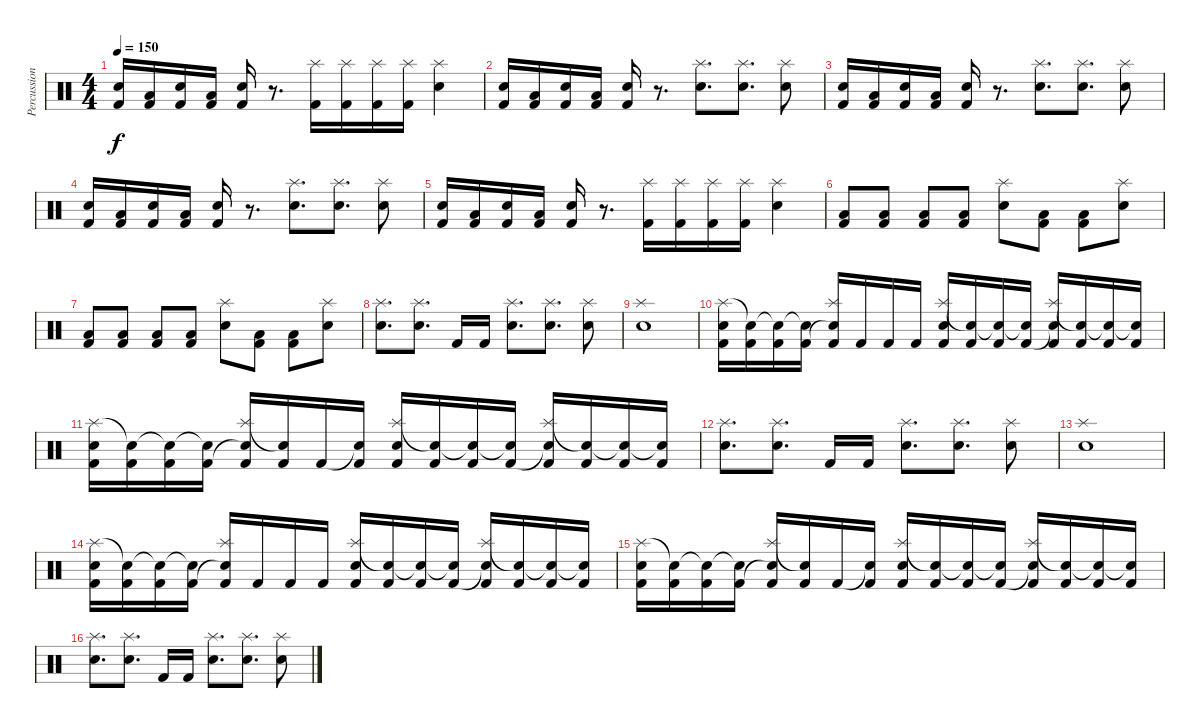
\track ("Percussions" "Percussion") {instrument percussion}
\staff {score}
\articulation defaults
\ts (4 4)
\tempo 150
\clef neutral
\ks c
("Electric Snare (hit)" "Kick (hit) 2").16{dy f} ("Low Floor Tom (hit)" "Kick (hit) 2").16 ("Electric Snare (hit)" "Kick (hit) 2").16 ("Low Floor Tom (hit)" "Kick (hit) 2").16 ("Electric Snare (hit)" "Kick (hit) 2").16 r.8{d} ("Splash (hit)" "Kick (hit) 2").16 ("Splash (hit)" "Kick (hit) 2").16 ("Splash (hit)" "Kick (hit) 2").16 ("Splash (hit)" "Kick (hit) 2").16 ("Splash (hit)" "Electric Snare (hit)").4 |
("Electric Snare (hit)" "Kick (hit) 2").16 ("Low Floor Tom (hit)" "Kick (hit) 2").16 ("Electric Snare (hit)" "Kick (hit) 2").16 ("Low Floor Tom (hit)" "Kick (hit) 2").16 ("Electric Snare (hit)" "Kick (hit) 2").16 r.8{d} ("Splash (hit)" "Electric Snare (hit)").8{d} ("Splash (hit)" "Electric Snare (hit)").8{d} ("Splash (hit)" "Electric Snare (hit)").8 |
("Electric Snare (hit)" "Kick (hit) 2").16 ("Low Floor Tom (hit)" "Kick (hit) 2").16 ("Electric Snare (hit)" "Kick (hit) 2").16 ("Low Floor Tom (hit)" "Kick (hit) 2").16 ("Electric Snare (hit)" "Kick (hit) 2").16 r.8{d} ("Splash (hit)" "Electric Snare (hit)").8{d} ("Splash (hit)" "Electric Snare (hit)").8{d} ("Splash (hit)" "Electric Snare (hit)").8 |
("Electric Snare (hit)" "Kick (hit) 2").16 ("Low Floor Tom (hit)" "Kick (hit) 2").16 ("Electric Snare (hit)" "Kick (hit) 2").16 ("Low Floor Tom (hit)" "Kick (hit) 2").16 ("Electric Snare (hit)" "Kick (hit) 2").16 r.8{d} ("Splash (hit)" "Electric Snare (hit)").8{d} ("Splash (hit)" "Electric Snare (hit)").8{d} ("Splash (hit)" "Electric Snare (hit)").8 |
("Electric Snare (hit)" "Kick (hit) 2").16 ("Low Floor Tom (hit)" "Kick (hit) 2").16 ("Electric Snare (hit)" "Kick (hit) 2").16 ("Low Floor Tom (hit)" "Kick (hit) 2").16 ("Electric Snare (hit)" "Kick (hit) 2").16 r.8{d} ("Splash (hit)" "Kick (hit) 2").16 ("Splash (hit)" "Kick (hit) 2").16 ("Splash (hit)" "Kick (hit) 2").16 ("Splash (hit)" "Kick (hit) 2").16 ("Splash (hit)" "Electric Snare (hit)").4 |
("Low Floor Tom (hit)" "Kick (hit) 2").8 ("Low Floor Tom (hit)" "Kick (hit) 2").8 ("Low Floor Tom (hit)" "Kick (hit) 2").8 ("Low Floor Tom (hit)" "Kick (hit) 2").8 ("Splash (hit)" "Electric Snare (hit)").8 ("Low Floor Tom (hit)" "Kick (hit) 2").8 ("Low Floor Tom (hit)" "Kick (hit) 2").8 ("Splash (hit)" "Electric Snare (hit)").8 |
("Low Floor Tom (hit)" "Kick (hit) 2").8 ("Low Floor Tom (hit)" "Kick (hit) 2").8 ("Low Floor Tom (hit)" "Kick (hit) 2").8 ("Low Floor Tom (hit)" "Kick (hit) 2").8 ("Splash (hit)" "Electric Snare (hit)").8 ("Low Floor Tom (hit)" "Kick (hit) 2").8 ("Low Floor Tom (hit)" "Kick (hit) 2").8 ("Splash (hit)" "Electric Snare (hit)").8 |
("Splash (hit)" "Electric Snare (hit)").8{d} ("Splash (hit)" "Electric Snare (hit)").8{d} "Kick (hit) 2".16 "Kick (hit) 2".16 ("Splash (hit)" "Electric Snare (hit)").8{d} ("Splash (hit)" "Electric Snare (hit)").8{d} ("Splash (hit)" "Electric Snare (hit)").8 |
("Splash (hit)" "Electric Snare (hit)").1 |
("Splash (hit)" "Electric Snare (hit)" "Kick (hit) 2").16 ("Snare (hit)"{t} "Kick (hit) 2").16 ("Snare (hit)"{t} "Kick (hit) 2").16 ("Snare (hit)"{t} "Kick (hit) 2").16 ("Splash (hit)" "Snare (hit) 2"{t} "Kick (hit) 2").16 "Kick (hit) 2".16 "Kick (hit) 2".16 "Kick (hit) 2".16 ("Splash (hit)" "Snare (hit) 2" "Kick (hit) 2").16 ("Snare (hit)"{t} "Kick (hit) 2").16 ("Snare (hit)"{t} "Kick (hit) 2").16 ("Snare (hit)"{t} "Kick (hit) 2").16 ("Splash (hit)" "Snare (hit) 2"{t} "Kick (hit) 2").16 ("Snare (hit)"{t} "Kick (hit) 2").16 ("Snare (hit)"{t} "Kick (hit) 2").16 ("Snare (hit)"{t} "Kick (hit) 2").16 |
("Splash (hit)" "Electric Snare (hit)" "Kick (hit) 2").16 ("Snare (hit)"{t} "Kick (hit) 2").16 ("Snare (hit)"{t} "Kick (hit) 2").16 ("Snare (hit)"{t} "Kick (hit) 2").16 ("Splash (hit)" "Snare (hit) 2"{t} "Kick (hit) 2").16 ("Snare (hit)"{t} "Kick (hit) 2").16 "Kick (hit) 2".16 ("Snare (hit)"{t} "Kick (hit) 2").16 ("Splash (hit)" "Snare (hit) 2" "Kick (hit) 2").16 ("Snare (hit)"{t} "Kick (hit) 2").16 ("Snare (hit)"{t} "Kick (hit) 2").16 ("Snare (hit)"{t} "Kick (hit) 2").16 ("Splash (hit)" "Snare (hit) 2"{t} "Kick (hit) 2").16 ("Snare (hit)"{t} "Kick (hit) 2").16 ("Snare (hit)"{t} "Kick (hit) 2").16 ("Snare (hit)"{t} "Kick (hit) 2").16 |
("Splash (hit)" "Electric Snare (hit)").8{d} ("Splash (hit)" "Electric Snare (hit)").8{d} "Kick (hit) 2".16 "Kick (hit) 2".16 ("Splash (hit)" "Electric Snare (hit)").8{d} ("Splash (hit)" "Electric Snare (hit)").8{d} ("Splash (hit)" "Electric Snare (hit)").8 |
("Splash (hit)" "Electric Snare (hit)").1 |
("Splash (hit)" "Electric Snare (hit)" "Kick (hit) 2").16 ("Snare (hit)"{t} "Kick (hit) 2").16 ("Snare (hit)"{t} "Kick (hit) 2").16 ("Snare (hit)"{t} "Kick (hit) 2").16 ("Splash (hit)" "Snare (hit) 2"{t} "Kick (hit) 2").16 "Kick (hit) 2".16 "Kick (hit) 2".16 "Kick (hit) 2".16 ("Splash (hit)" "Snare (hit) 2" "Kick (hit) 2").16 ("Snare (hit)"{t} "Kick (hit) 2").16 ("Snare (hit)"{t} "Kick (hit) 2").16 ("Snare (hit)"{t} "Kick (hit) 2").16 ("Splash (hit)" "Snare (hit) 2"{t} "Kick (hit) 2").16 ("Snare (hit)"{t} "Kick (hit) 2").16 ("Snare (hit)"{t} "Kick (hit) 2").16 ("Snare (hit)"{t} "Kick (hit) 2").16 |
("Splash (hit)" "Electric Snare (hit)" "Kick (hit) 2").16 ("Snare (hit)"{t} "Kick (hit) 2").16 ("Snare (hit)"{t} "Kick (hit) 2").16 ("Snare (hit)"{t} "Kick (hit) 2").16 ("Splash (hit)" "Snare (hit) 2"{t} "Kick (hit) 2").16 ("Snare (hit)"{t} "Kick (hit) 2").16 "Kick (hit) 2".16 ("Snare (hit)"{t} "Kick (hit) 2").16 ("Splash (hit)" "Snare (hit) 2" "Kick (hit) 2").16 ("Snare (hit)"{t} "Kick (hit) 2").16 ("Snare (hit)"{t} "Kick (hit) 2").16 ("Snare (hit)"{t} "Kick (hit) 2").16 ("Splash (hit)" "Snare (hit) 2"{t} "Kick (hit) 2").16 ("Snare (hit)"{t} "Kick (hit) 2").16 ("Snare (hit)"{t} "Kick (hit) 2").16 ("Snare (hit)"{t} "Kick (hit) 2").16 |
("Splash (hit)" "Electric Snare (hit)").8{d} ("Splash (hit)" "Electric Snare (hit)").8{d} "Kick (hit) 2".16 "Kick (hit) 2".16 ("Splash (hit)" "Electric Snare (hit)").8{d} ("Splash (hit)" "Electric Snare (hit)").8{d} ("Splash (hit)" "Electric Snare (hit)").8
